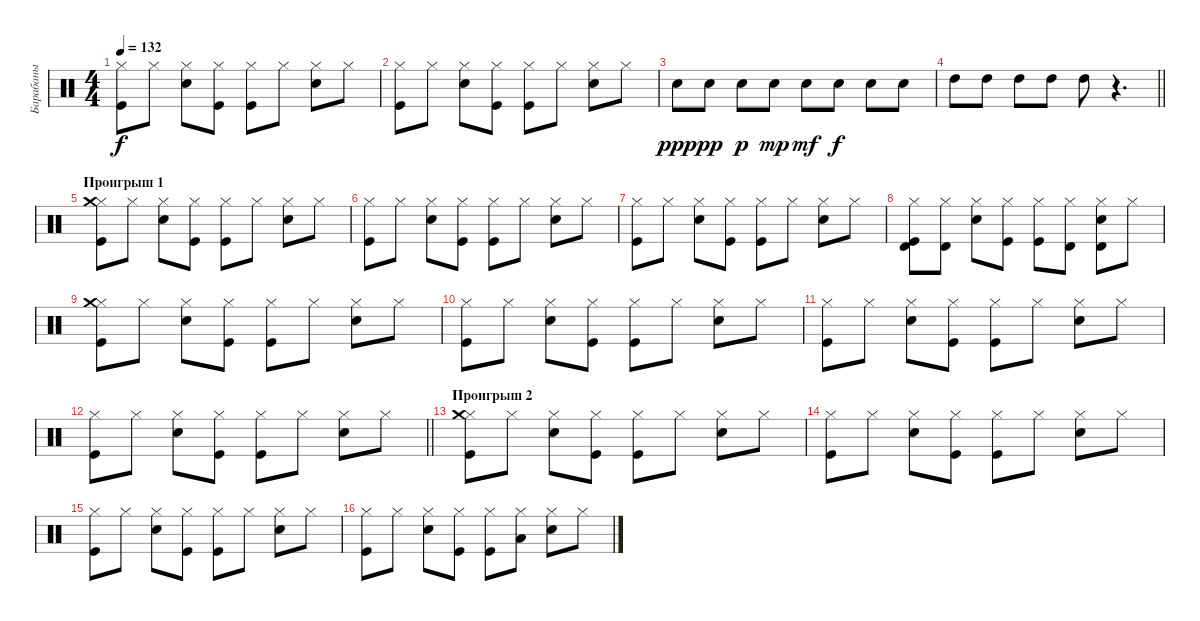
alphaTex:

\track ("Барабаны" "Барабаны") {instrument percussion}
\staff {score}
\articulation defaults
\ts (4 4)
\tempo 132
\clef neutral
\ks c
("Kick (hit)" "Hi-Hat (closed)").8{dy f} "Hi-Hat (closed)".8 ("Snare (hit) 2" "Hi-Hat (closed)").8 ("Kick (hit)" "Hi-Hat (closed)").8 ("Kick (hit)" "Hi-Hat (closed)").8 "Hi-Hat (closed)".8 ("Snare (hit) 2" "Hi-Hat (closed)").8 "Hi-Hat (closed)".8 |
("Kick (hit)" "Hi-Hat (closed)").8 "Hi-Hat (closed)".8 ("Snare (hit) 2" "Hi-Hat (closed)").8 ("Kick (hit)" "Hi-Hat (closed)").8 ("Kick (hit)" "Hi-Hat (closed)").8 "Hi-Hat (closed)".8 ("Snare (hit) 2" "Hi-Hat (closed)").8 "Hi-Hat (closed)".8 |
"Snare (hit) 2".8{dy ppp} "Snare (hit) 2".8{dy pp} "Snare (hit) 2".8{dy p} "Snare (hit) 2".8{dy mp} "Snare (hit) 2".8{dy mf} "Snare (hit) 2".8{dy f} "Snare (hit) 2".8 "Snare (hit) 2".8 |
\barLineRight lightlight "High Tom (hit)".8 "High Tom (hit)".8 "High Tom (hit)".8 "High Tom (hit)".8 "High Tom (hit)".8
r.4{d} |
\section ("" "Проигрыш 1")
("Kick (hit)" "Hi-Hat (closed)" "Crash medium (hit)").8 "Hi-Hat (closed)".8 ("Snare (hit) 2" "Hi-Hat (closed)").8 ("Kick (hit)" "Hi-Hat (closed)").8 ("Kick (hit)" "Hi-Hat (closed)").8 "Hi-Hat (closed)".8 ("Snare (hit) 2" "Hi-Hat (closed)").8 "Hi-Hat (closed)".8 |
("Kick (hit)" "Hi-Hat (closed)").8 "Hi-Hat (closed)".8 ("Snare (hit) 2" "Hi-Hat (closed)").8 ("Kick (hit)" "Hi-Hat (closed)").8 ("Kick (hit)" "Hi-Hat (closed)").8 "Hi-Hat (closed)".8 ("Snare (hit) 2" "Hi-Hat (closed)").8 "Hi-Hat (closed)".8 |
("Kick (hit)" "Hi-Hat (closed)").8 "Hi-Hat (closed)".8 ("Snare (hit) 2" "Hi-Hat (closed)").8 ("Kick (hit)" "Hi-Hat (closed)").8 ("Kick (hit)" "Hi-Hat (closed)").8 "Hi-Hat (closed)".8 ("Snare (hit) 2" "Hi-Hat (closed)").8 "Hi-Hat (closed)".8 |
("Kick (hit)" "Hi-Hat (closed)" "Timbale high (hit)").8 ("Hi-Hat (closed)" "Timbale high (hit)").8 ("Snare (hit) 2" "Hi-Hat (closed)").8 ("Kick (hit)" "Hi-Hat (closed)").8 ("Kick (hit)" "Hi-Hat (closed)").8 ("Hi-Hat (closed)" "Timbale high (hit)").8 ("Snare (hit) 2" "Hi-Hat (closed)" "Timbale high (hit)").8 "Hi-Hat (closed)".8 |
("Kick (hit)" "Hi-Hat (closed)" "Crash medium (hit)").8 "Hi-Hat (closed)".8 ("Snare (hit) 2" "Hi-Hat (closed)").8 ("Kick (hit)" "Hi-Hat (closed)").8 ("Kick (hit)" "Hi-Hat (closed)").8 "Hi-Hat (closed)".8 ("Snare (hit) 2" "Hi-Hat (closed)").8 "Hi-Hat (closed)".8 |
("Kick (hit)" "Hi-Hat (closed)").8 "Hi-Hat (closed)".8 ("Snare (hit) 2" "Hi-Hat (closed)").8 ("Kick (hit)" "Hi-Hat (closed)").8 ("Kick (hit)" "Hi-Hat (closed)").8 "Hi-Hat (closed)".8 ("Snare (hit) 2" "Hi-Hat (closed)").8 "Hi-Hat (closed)".8 |
("Kick (hit)" "Hi-Hat (closed)").8 "Hi-Hat (closed)".8 ("Snare (hit) 2" "Hi-Hat (closed)").8 ("Kick (hit)" "Hi-Hat (closed)").8 ("Kick (hit)" "Hi-Hat (closed)").8 "Hi-Hat (closed)".8 ("Snare (hit) 2" "Hi-Hat (closed)").8 "Hi-Hat (closed)".8 |
\barLineRight lightlight
("Kick (hit)" "Hi-Hat (closed)").8 "Hi-Hat (closed)".8 ("Snare (hit) 2" "Hi-Hat (closed)").8 ("Kick (hit)" "Hi-Hat (closed)").8 ("Kick (hit)" "Hi-Hat (closed)").8 "Hi-Hat (closed)".8 ("Snare (hit) 2" "Hi-Hat (closed)").8 "Hi-Hat (closed)".8 |
\section ("" "Проигрыш 2")
("Kick (hit)" "Hi-Hat (closed)" "Crash medium (hit)").8 "Hi-Hat (closed)".8 ("Snare (hit) 2" "Hi-Hat (closed)").8 ("Kick (hit)" "Hi-Hat (closed)").8 ("Kick (hit)" "Hi-Hat (closed)").8 "Hi-Hat (closed)".8 ("Snare (hit) 2" "Hi-Hat (closed)").8 "Hi-Hat (closed)".8 |
("Kick (hit)" "Hi-Hat (closed)").8 "Hi-Hat (closed)".8 ("Snare (hit) 2" "Hi-Hat (closed)").8 ("Kick (hit)" "Hi-Hat (closed)").8 ("Kick (hit)" "Hi-Hat (closed)").8 "Hi-Hat (closed)".8 ("Snare (hit) 2" "Hi-Hat (closed)").8 "Hi-Hat (closed)".8 |
("Kick (hit)" "Hi-Hat (closed)").8 "Hi-Hat (closed)".8 ("Snare (hit) 2" "Hi-Hat (closed)").8 ("Kick (hit)" "Hi-Hat (closed)").8 ("Kick (hit)" "Hi-Hat (closed)").8 "Hi-Hat (closed)".8 ("Snare (hit) 2" "Hi-Hat (closed)").8 "Hi-Hat (closed)".8 |
("Kick (hit)" "Hi-Hat (closed)").8 "Hi-Hat (closed)".8 ("Snare (hit) 2" "Hi-Hat (closed)").8 ("Kick (hit)" "Hi-Hat (closed)").8 ("Kick (hit)" "Hi-Hat (closed)").8 ("Hi-Hat (closed)" "Low Floor Tom (hit)").8 ("Snare (hit) 2" "Hi-Hat (closed)").8 "Hi-Hat (closed)".8
